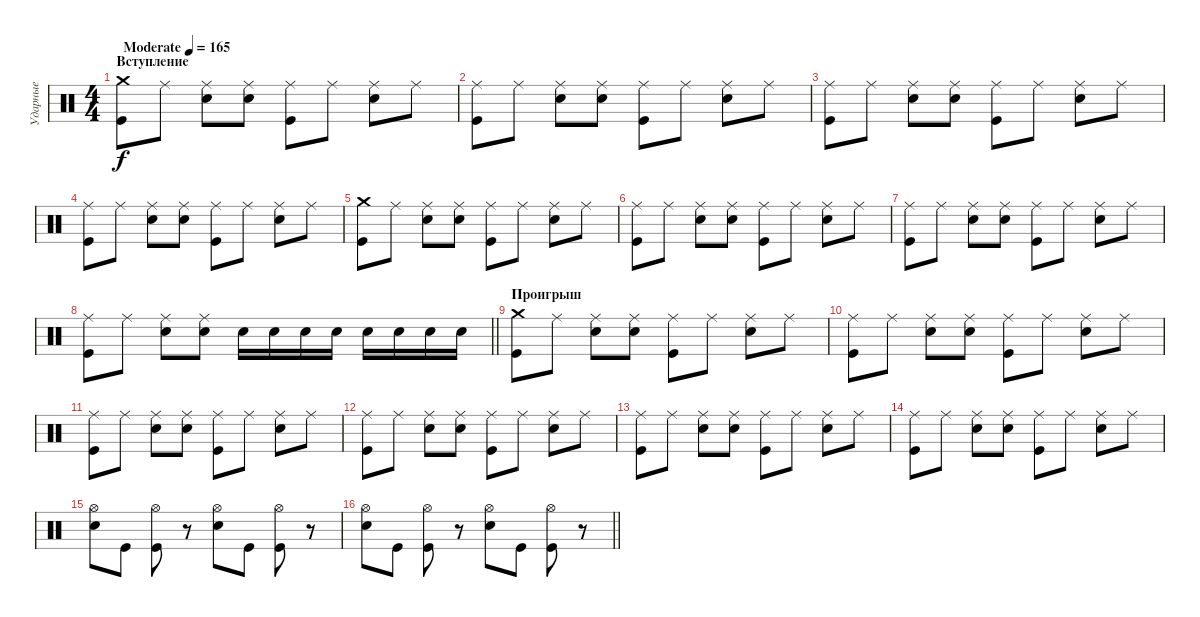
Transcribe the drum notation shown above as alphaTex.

\track ("Ударные" "Ударные") {instrument percussion}
\staff {score}
\articulation defaults
\ts (4 4)
\section ("" "Вступление")
\tempo (165 "Moderate")
\clef neutral
\ks c
("Crash medium (hit)" "Kick (hit)").8{dy f} "Ride (middle)".8 ("Ride (middle)" "Electric Snare (hit)").8 ("Ride (middle)" "Electric Snare (hit)").8 ("Ride (middle)" "Kick (hit)").8 "Ride (middle)".8 ("Ride (middle)" "Electric Snare (hit)").8 "Ride (middle)".8 |
("Ride (middle)" "Kick (hit)").8 "Ride (middle)".8 ("Ride (middle)" "Electric Snare (hit)").8 ("Ride (middle)" "Electric Snare (hit)").8 ("Ride (middle)" "Kick (hit)").8 "Ride (middle)".8 ("Ride (middle)" "Electric Snare (hit)").8 "Ride (middle)".8 |
("Ride (middle)" "Kick (hit)").8 "Ride (middle)".8 ("Ride (middle)" "Electric Snare (hit)").8 ("Ride (middle)" "Electric Snare (hit)").8 ("Ride (middle)" "Kick (hit)").8 "Ride (middle)".8 ("Ride (middle)" "Electric Snare (hit)").8 "Ride (middle)".8 |
("Ride (middle)" "Kick (hit)").8 "Ride (middle)".8 ("Ride (middle)" "Electric Snare (hit)").8 ("Ride (middle)" "Electric Snare (hit)").8 ("Ride (middle)" "Kick (hit)").8 "Ride (middle)".8 ("Ride (middle)" "Electric Snare (hit)").8 "Ride (middle)".8 |
("Crash medium (hit)" "Kick (hit)").8 "Ride (middle)".8 ("Ride (middle)" "Electric Snare (hit)").8 ("Ride (middle)" "Electric Snare (hit)").8 ("Ride (middle)" "Kick (hit)").8 "Ride (middle)".8 ("Ride (middle)" "Electric Snare (hit)").8 "Ride (middle)".8 |
("Ride (middle)" "Kick (hit)").8 "Ride (middle)".8 ("Ride (middle)" "Electric Snare (hit)").8 ("Ride (middle)" "Electric Snare (hit)").8 ("Ride (middle)" "Kick (hit)").8 "Ride (middle)".8 ("Ride (middle)" "Electric Snare (hit)").8 "Ride (middle)".8 |
("Ride (middle)" "Kick (hit)").8 "Ride (middle)".8 ("Ride (middle)" "Electric Snare (hit)").8 ("Ride (middle)" "Electric Snare (hit)").8 ("Ride (middle)" "Kick (hit)").8 "Ride (middle)".8 ("Ride (middle)" "Electric Snare (hit)").8 "Ride (middle)".8 |
\barLineRight lightlight
("Ride (middle)" "Kick (hit)").8 "Ride (middle)".8 ("Ride (middle)" "Electric Snare (hit)").8 ("Ride (middle)" "Electric Snare (hit)").8 "Electric Snare (hit)".16 "Electric Snare (hit)".16 "Electric Snare (hit)".16 "Electric Snare (hit)".16 "Electric Snare (hit)".16 "Electric Snare (hit)".16 "Electric Snare (hit)".16 "Electric Snare (hit)".16 |
\section ("" "Проигрыш")
("Crash medium (hit)" "Kick (hit)").8 "Ride (middle)".8 ("Ride (middle)" "Electric Snare (hit)").8 ("Ride (middle)" "Electric Snare (hit)").8 ("Ride (middle)" "Kick (hit)").8 "Ride (middle)".8 ("Ride (middle)" "Electric Snare (hit)").8 "Ride (middle)".8 |
("Ride (middle)" "Kick (hit)").8 "Ride (middle)".8 ("Ride (middle)" "Electric Snare (hit)").8 ("Ride (middle)" "Electric Snare (hit)").8 ("Ride (middle)" "Kick (hit)").8 "Ride (middle)".8 ("Ride (middle)" "Electric Snare (hit)").8 "Ride (middle)".8 |
("Ride (middle)" "Kick (hit)").8 "Ride (middle)".8 ("Ride (middle)" "Electric Snare (hit)").8 ("Ride (middle)" "Electric Snare (hit)").8 ("Ride (middle)" "Kick (hit)").8 "Ride (middle)".8 ("Ride (middle)" "Electric Snare (hit)").8 "Ride (middle)".8 |
("Ride (middle)" "Kick (hit)").8 "Ride (middle)".8 ("Ride (middle)" "Electric Snare (hit)").8 ("Ride (middle)" "Electric Snare (hit)").8 ("Ride (middle)" "Kick (hit)").8 "Ride (middle)".8 ("Ride (middle)" "Electric Snare (hit)").8 "Ride (middle)".8 |
("Ride (middle)" "Kick (hit)").8 "Ride (middle)".8 ("Ride (middle)" "Electric Snare (hit)").8 ("Ride (middle)" "Electric Snare (hit)").8 ("Ride (middle)" "Kick (hit)").8 "Ride (middle)".8 ("Ride (middle)" "Electric Snare (hit)").8 "Ride (middle)".8 |
("Ride (middle)" "Kick (hit)").8 "Ride (middle)".8 ("Ride (middle)" "Electric Snare (hit)").8 ("Ride (middle)" "Electric Snare (hit)").8 ("Ride (middle)" "Kick (hit)").8 "Ride (middle)".8 ("Ride (middle)" "Electric Snare (hit)").8 "Ride (middle)".8 |
("Hi-Hat (open)" "Electric Snare (hit)").8 "Kick (hit)".8 ("Hi-Hat (open)" "Kick (hit)").8 r.8 ("Hi-Hat (open)" "Electric Snare (hit)").8 "Kick (hit)".8 ("Hi-Hat (open)" "Kick (hit)").8 r.8 |
\barLineRight lightlight
("Hi-Hat (open)" "Electric Snare (hit)").8 "Kick (hit)".8 ("Hi-Hat (open)" "Kick (hit)").8 r.8 ("Hi-Hat (open)" "Electric Snare (hit)").8 "Kick (hit)".8 ("Hi-Hat (open)" "Kick (hit)").8 r.8
